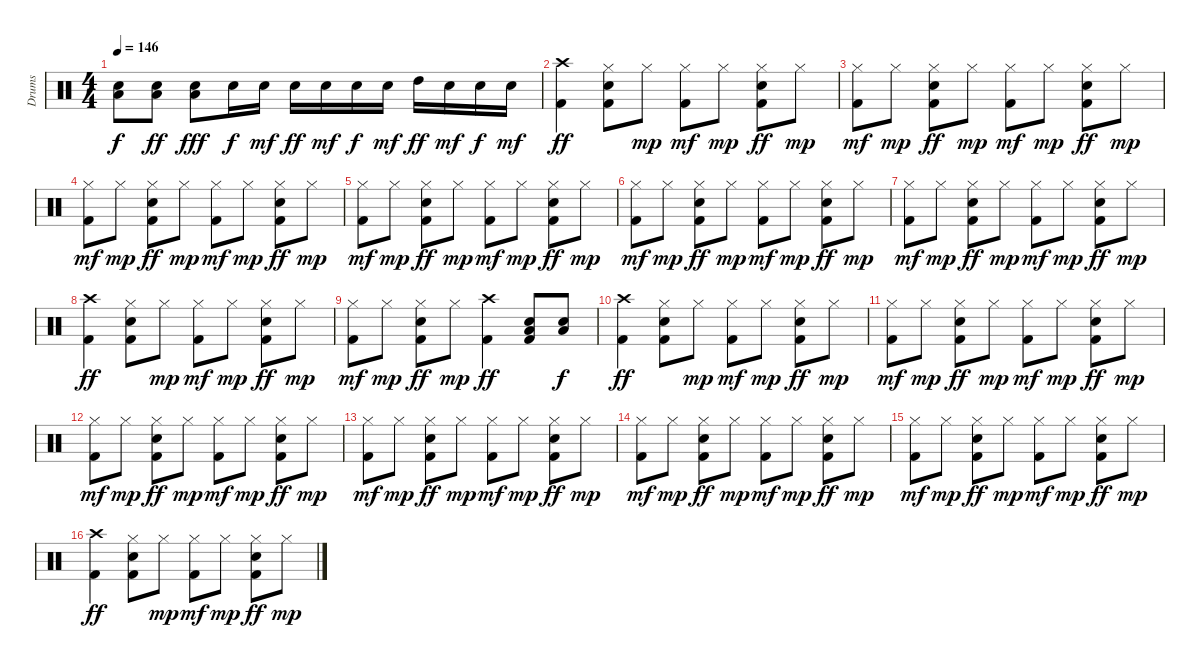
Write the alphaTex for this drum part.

\track ("Drums" "Drums") {instrument percussion}
\staff {score}
\articulation defaults
\ts (4 4)
\tempo 146
\clef neutral
\ks c
("Snare (hit) 2" "Low Floor Tom (hit)").8{dy f} ("Snare (hit) 2" "Low Floor Tom (hit)").8{dy ff} ("Snare (hit) 2" "Low Floor Tom (hit)").8{dy fff} "Snare (hit) 2".16{dy f} "Snare (hit) 2".16{dy mf} "Snare (hit) 2".16{dy ff} "Snare (hit) 2".16{dy mf} "Snare (hit) 2".16{dy f} "Snare (hit) 2".16{dy mf} "High Tom (hit)".16{dy ff} "Snare (hit) 2".16{dy mf} "Snare (hit) 2".16{dy f} "Snare (hit) 2".16{dy mf} |
("Kick (hit) 2" "Crash high (hit)").4{dy ff} ("Kick (hit) 2" "Hi-Hat (closed)" "Snare (hit) 2").8 "Hi-Hat (closed)".8{dy mp} ("Kick (hit) 2" "Hi-Hat (closed)").8{dy mf} "Hi-Hat (closed)".8{dy mp} ("Kick (hit) 2" "Hi-Hat (closed)" "Snare (hit) 2").8{dy ff} "Hi-Hat (closed)".8{dy mp} |
("Kick (hit) 2" "Hi-Hat (closed)").8{dy mf} "Hi-Hat (closed)".8{dy mp} ("Kick (hit) 2" "Snare (hit) 2" "Hi-Hat (closed)").8{dy ff} "Hi-Hat (closed)".8{dy mp} ("Kick (hit) 2" "Hi-Hat (closed)").8{dy mf} "Hi-Hat (closed)".8{dy mp} ("Kick (hit) 2" "Snare (hit) 2" "Hi-Hat (closed)").8{dy ff} "Hi-Hat (closed)".8{dy mp} |
("Kick (hit) 2" "Hi-Hat (closed)").8{dy mf} "Hi-Hat (closed)".8{dy mp} ("Kick (hit) 2" "Snare (hit) 2" "Hi-Hat (closed)").8{dy ff} "Hi-Hat (closed)".8{dy mp} ("Kick (hit) 2" "Hi-Hat (closed)").8{dy mf} "Hi-Hat (closed)".8{dy mp} ("Kick (hit) 2" "Snare (hit) 2" "Hi-Hat (closed)").8{dy ff} "Hi-Hat (closed)".8{dy mp} |
("Kick (hit) 2" "Hi-Hat (closed)").8{dy mf} "Hi-Hat (closed)".8{dy mp} ("Kick (hit) 2" "Snare (hit) 2" "Hi-Hat (closed)").8{dy ff} "Hi-Hat (closed)".8{dy mp} ("Kick (hit) 2" "Hi-Hat (closed)").8{dy mf} "Hi-Hat (closed)".8{dy mp} ("Kick (hit) 2" "Snare (hit) 2" "Hi-Hat (closed)").8{dy ff} "Hi-Hat (closed)".8{dy mp} |
("Kick (hit) 2" "Hi-Hat (closed)").8{dy mf} "Hi-Hat (closed)".8{dy mp} ("Kick (hit) 2" "Snare (hit) 2" "Hi-Hat (closed)").8{dy ff} "Hi-Hat (closed)".8{dy mp} ("Kick (hit) 2" "Hi-Hat (closed)").8{dy mf} "Hi-Hat (closed)".8{dy mp} ("Kick (hit) 2" "Snare (hit) 2" "Hi-Hat (closed)").8{dy ff} "Hi-Hat (closed)".8{dy mp} |
("Kick (hit) 2" "Hi-Hat (closed)").8{dy mf} "Hi-Hat (closed)".8{dy mp} ("Kick (hit) 2" "Snare (hit) 2" "Hi-Hat (closed)").8{dy ff} "Hi-Hat (closed)".8{dy mp} ("Kick (hit) 2" "Hi-Hat (closed)").8{dy mf} "Hi-Hat (closed)".8{dy mp} ("Kick (hit) 2" "Snare (hit) 2" "Hi-Hat (closed)").8{dy ff} "Hi-Hat (closed)".8{dy mp} |
("Kick (hit) 2" "Crash high (hit)").4{dy ff} ("Kick (hit) 2" "Hi-Hat (closed)" "Snare (hit) 2").8 "Hi-Hat (closed)".8{dy mp} ("Kick (hit) 2" "Hi-Hat (closed)").8{dy mf} "Hi-Hat (closed)".8{dy mp} ("Kick (hit) 2" "Hi-Hat (closed)" "Snare (hit) 2").8{dy ff} "Hi-Hat (closed)".8{dy mp} |
("Kick (hit) 2" "Hi-Hat (closed)").8{dy mf} "Hi-Hat (closed)".8{dy mp} ("Kick (hit) 2" "Snare (hit) 2" "Hi-Hat (closed)").8{dy ff} "Hi-Hat (closed)".8{dy mp} ("Kick (hit) 2" "Crash high (hit)").4{dy ff} ("Kick (hit) 2" "Snare (hit) 2" "Low Floor Tom (hit)").8 ("Snare (hit) 2" "Low Floor Tom (hit)").8{dy f} |
("Kick (hit) 2" "Crash high (hit)").4{dy ff} ("Kick (hit) 2" "Hi-Hat (closed)" "Snare (hit) 2").8 "Hi-Hat (closed)".8{dy mp} ("Kick (hit) 2" "Hi-Hat (closed)").8{dy mf} "Hi-Hat (closed)".8{dy mp} ("Kick (hit) 2" "Hi-Hat (closed)" "Snare (hit) 2").8{dy ff} "Hi-Hat (closed)".8{dy mp} |
("Kick (hit) 2" "Hi-Hat (closed)").8{dy mf} "Hi-Hat (closed)".8{dy mp} ("Kick (hit) 2" "Snare (hit) 2" "Hi-Hat (closed)").8{dy ff} "Hi-Hat (closed)".8{dy mp} ("Kick (hit) 2" "Hi-Hat (closed)").8{dy mf} "Hi-Hat (closed)".8{dy mp} ("Kick (hit) 2" "Snare (hit) 2" "Hi-Hat (closed)").8{dy ff} "Hi-Hat (closed)".8{dy mp} |
("Kick (hit) 2" "Hi-Hat (closed)").8{dy mf} "Hi-Hat (closed)".8{dy mp} ("Kick (hit) 2" "Snare (hit) 2" "Hi-Hat (closed)").8{dy ff} "Hi-Hat (closed)".8{dy mp} ("Kick (hit) 2" "Hi-Hat (closed)").8{dy mf} "Hi-Hat (closed)".8{dy mp} ("Kick (hit) 2" "Snare (hit) 2" "Hi-Hat (closed)").8{dy ff} "Hi-Hat (closed)".8{dy mp} |
("Kick (hit) 2" "Hi-Hat (closed)").8{dy mf} "Hi-Hat (closed)".8{dy mp} ("Kick (hit) 2" "Snare (hit) 2" "Hi-Hat (closed)").8{dy ff} "Hi-Hat (closed)".8{dy mp} ("Kick (hit) 2" "Hi-Hat (closed)").8{dy mf} "Hi-Hat (closed)".8{dy mp} ("Kick (hit) 2" "Snare (hit) 2" "Hi-Hat (closed)").8{dy ff} "Hi-Hat (closed)".8{dy mp} |
("Kick (hit) 2" "Hi-Hat (closed)").8{dy mf} "Hi-Hat (closed)".8{dy mp} ("Kick (hit) 2" "Snare (hit) 2" "Hi-Hat (closed)").8{dy ff} "Hi-Hat (closed)".8{dy mp} ("Kick (hit) 2" "Hi-Hat (closed)").8{dy mf} "Hi-Hat (closed)".8{dy mp} ("Kick (hit) 2" "Snare (hit) 2" "Hi-Hat (closed)").8{dy ff} "Hi-Hat (closed)".8{dy mp} |
("Kick (hit) 2" "Hi-Hat (closed)").8{dy mf} "Hi-Hat (closed)".8{dy mp} ("Kick (hit) 2" "Snare (hit) 2" "Hi-Hat (closed)").8{dy ff} "Hi-Hat (closed)".8{dy mp} ("Kick (hit) 2" "Hi-Hat (closed)").8{dy mf} "Hi-Hat (closed)".8{dy mp} ("Kick (hit) 2" "Snare (hit) 2" "Hi-Hat (closed)").8{dy ff} "Hi-Hat (closed)".8{dy mp} |
("Kick (hit) 2" "Crash high (hit)").4{dy ff} ("Kick (hit) 2" "Hi-Hat (closed)" "Snare (hit) 2").8 "Hi-Hat (closed)".8{dy mp} ("Kick (hit) 2" "Hi-Hat (closed)").8{dy mf} "Hi-Hat (closed)".8{dy mp} ("Kick (hit) 2" "Hi-Hat (closed)" "Snare (hit) 2").8{dy ff} "Hi-Hat (closed)".8{dy mp}
